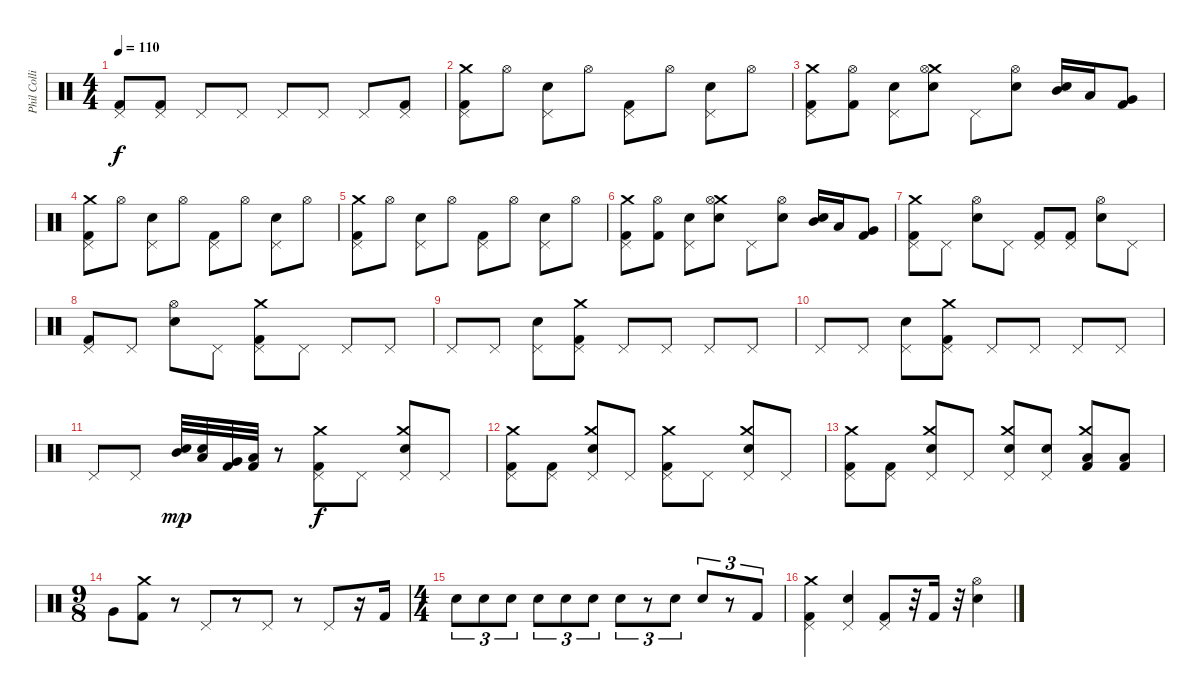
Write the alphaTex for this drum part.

\track ("Phil Collins (drums)" "Phil Colli") {instrument percussion}
\staff {score}
\articulation defaults
\ts (4 4)
\tempo 110
\clef neutral
\ks c
("Kick (hit) 2" "Pedal Hi-Hat (hit)").8{dy f} ("Kick (hit) 2" "Pedal Hi-Hat (hit)").8 "Pedal Hi-Hat (hit)".8 "Pedal Hi-Hat (hit)".8 "Pedal Hi-Hat (hit)".8 "Pedal Hi-Hat (hit)".8 "Pedal Hi-Hat (hit)".8 ("Kick (hit) 2" "Pedal Hi-Hat (hit)").8 |
("Crash medium (hit)" "Pedal Hi-Hat (hit)" "Kick (hit) 2").8 "Hi-Hat (open)".8 ("Pedal Hi-Hat (hit)" "Electric Snare (hit)").8 "Hi-Hat (open)".8 ("Pedal Hi-Hat (hit)" "Kick (hit) 2").8 "Hi-Hat (open)".8 ("Pedal Hi-Hat (hit)" "Electric Snare (hit)").8 "Hi-Hat (open)".8 |
("Crash medium (hit)" "Pedal Hi-Hat (hit)" "Kick (hit) 2").8 ("Hi-Hat (open)" "Kick (hit) 2").8 ("Pedal Hi-Hat (hit)" "Electric Snare (hit)").8 ("Crash medium (hit)" "Hi-Hat (open)" "Electric Snare (hit)").8 "Pedal Hi-Hat (hit)".8 ("Hi-Hat (open)" "Electric Snare (hit)").8 ("Mid Tom (hit)" "Electric Snare (hit)").16 "Low Tom (hit)".16 ("Very Low Tom (hit)" "Kick (hit) 2").8 |
("Crash medium (hit)" "Pedal Hi-Hat (hit)" "Kick (hit) 2").8 "Hi-Hat (open)".8 ("Pedal Hi-Hat (hit)" "Electric Snare (hit)").8 "Hi-Hat (open)".8 ("Pedal Hi-Hat (hit)" "Kick (hit) 2").8 "Hi-Hat (open)".8 ("Pedal Hi-Hat (hit)" "Electric Snare (hit)").8 "Hi-Hat (open)".8 |
("Crash medium (hit)" "Pedal Hi-Hat (hit)" "Kick (hit) 2").8 "Hi-Hat (open)".8 ("Pedal Hi-Hat (hit)" "Electric Snare (hit)").8 "Hi-Hat (open)".8 ("Pedal Hi-Hat (hit)" "Kick (hit) 2").8 "Hi-Hat (open)".8 ("Pedal Hi-Hat (hit)" "Electric Snare (hit)").8 "Hi-Hat (open)".8 |
("Crash medium (hit)" "Pedal Hi-Hat (hit)" "Kick (hit) 2").8 ("Hi-Hat (open)" "Kick (hit) 2").8 ("Pedal Hi-Hat (hit)" "Electric Snare (hit)").8 ("Crash medium (hit)" "Hi-Hat (open)" "Electric Snare (hit)").8 "Pedal Hi-Hat (hit)".8 ("Hi-Hat (open)" "Electric Snare (hit)").8 ("Mid Tom (hit)" "Electric Snare (hit)").16 "Low Tom (hit)".16 ("Very Low Tom (hit)" "Kick (hit) 2").8 |
("Crash medium (hit)" "Pedal Hi-Hat (hit)" "Kick (hit) 2").8 "Pedal Hi-Hat (hit)".8 ("Hi-Hat (open)" "Electric Snare (hit)").8 "Pedal Hi-Hat (hit)".8 ("Pedal Hi-Hat (hit)" "Kick (hit) 2").8 ("Pedal Hi-Hat (hit)" "Kick (hit) 2").8 ("Hi-Hat (open)" "Electric Snare (hit)").8 "Pedal Hi-Hat (hit)".8 |
("Pedal Hi-Hat (hit)" "Kick (hit) 2").8 "Pedal Hi-Hat (hit)".8 ("Hi-Hat (open)" "Electric Snare (hit)").8 "Pedal Hi-Hat (hit)".8 ("Crash medium (hit)" "Pedal Hi-Hat (hit)" "Kick (hit) 2").8 "Pedal Hi-Hat (hit)".8 "Pedal Hi-Hat (hit)".8 "Pedal Hi-Hat (hit)".8 |
"Pedal Hi-Hat (hit)".8 "Pedal Hi-Hat (hit)".8 ("Pedal Hi-Hat (hit)" "Electric Snare (hit)").8 ("Crash medium (hit)" "Pedal Hi-Hat (hit)" "Kick (hit) 2").8 "Pedal Hi-Hat (hit)".8 "Pedal Hi-Hat (hit)".8 "Pedal Hi-Hat (hit)".8 "Pedal Hi-Hat (hit)".8 |
"Pedal Hi-Hat (hit)".8 "Pedal Hi-Hat (hit)".8 ("Pedal Hi-Hat (hit)" "Electric Snare (hit)").8 ("Crash medium (hit)" "Pedal Hi-Hat (hit)" "Kick (hit) 2").8 "Pedal Hi-Hat (hit)".8 "Pedal Hi-Hat (hit)".8 "Pedal Hi-Hat (hit)".8 "Pedal Hi-Hat (hit)".8 |
"Pedal Hi-Hat (hit)".8 "Pedal Hi-Hat (hit)".8 ("Mid Tom (hit)" "Electric Snare (hit)").32{dy mp} ("Low Tom (hit)" "Electric Snare (hit)").32 ("Very Low Tom (hit)" "Kick (hit) 2").32 ("Low Floor Tom (hit)" "Kick (hit) 2").32 r.8 ("Crash medium (hit)" "Pedal Hi-Hat (hit)" "Kick (hit) 2").8{dy f} "Pedal Hi-Hat (hit)".8 ("Crash medium (hit)" "Pedal Hi-Hat (hit)" "Electric Snare (hit)").8 "Pedal Hi-Hat (hit)".8 |
("Crash medium (hit)" "Pedal Hi-Hat (hit)" "Kick (hit) 2").8 ("Pedal Hi-Hat (hit)" "Kick (hit) 2").8 ("Crash medium (hit)" "Pedal Hi-Hat (hit)" "Electric Snare (hit)").8 "Pedal Hi-Hat (hit)".8 ("Crash medium (hit)" "Pedal Hi-Hat (hit)" "Kick (hit) 2").8 "Pedal Hi-Hat (hit)".8 ("Crash medium (hit)" "Pedal Hi-Hat (hit)" "Electric Snare (hit)").8 "Pedal Hi-Hat (hit)".8 |
("Crash medium (hit)" "Pedal Hi-Hat (hit)" "Kick (hit) 2").8 ("Pedal Hi-Hat (hit)" "Kick (hit) 2").8 ("Crash medium (hit)" "Pedal Hi-Hat (hit)" "Electric Snare (hit)").8 "Pedal Hi-Hat (hit)".8 ("Crash medium (hit)" "Pedal Hi-Hat (hit)" "Electric Snare (hit)").8 ("Pedal Hi-Hat (hit)" "Electric Snare (hit)").8 ("Crash medium (hit)" "Low Tom (hit)" "Kick (hit) 2").8 ("Low Tom (hit)" "Kick (hit) 2").8 |
\ts (9 8)
"Very Low Tom (hit)".8 ("Crash medium (hit)" "Kick (hit) 2").8 r.8 "Pedal Hi-Hat (hit)".8 r.8 "Pedal Hi-Hat (hit)".8 r.8 "Pedal Hi-Hat (hit)".8 r.16 "Kick (hit) 2".16 |
\ts (4 4)
"Electric Snare (hit)".8{tu (3 2)} "Electric Snare (hit)".8{tu (3 2)} "Electric Snare (hit)".8{tu (3 2)} "Electric Snare (hit)".8{tu (3 2)} "Electric Snare (hit)".8{tu (3 2)} "Electric Snare (hit)".8{tu (3 2)} "Electric Snare (hit)".8{tu (3 2)} r.8{tu (3 2)} "Electric Snare (hit)".8{tu (3 2)} "Electric Snare (hit)".8{tu (3 2)} r.8{tu (3 2)} "Kick (hit) 2".8{tu (3 2)} |
("Crash medium (hit)" "Pedal Hi-Hat (hit)" "Kick (hit) 2").4 ("Pedal Hi-Hat (hit)" "Electric Snare (hit)").4 ("Pedal Hi-Hat (hit)" "Kick (hit) 2").8 r.32 "Kick (hit) 2".16 r.32 ("Hi-Hat (open)" "Electric Snare (hit)").4
